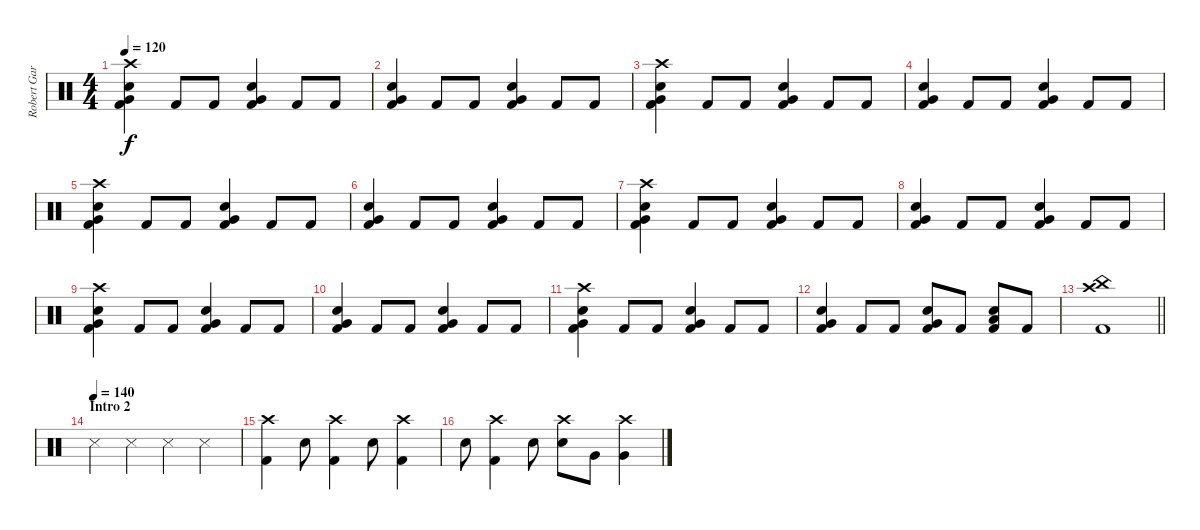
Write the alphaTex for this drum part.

\track ("Robert Garven" "Robert Gar") {instrument percussion}
\staff {score}
\articulation defaults
\ts (4 4)
\tempo 120
\clef neutral
\ks c
("Crash high (hit)" "Very Low Tom (hit)" "Electric Snare (hit)" "Kick (hit) 2").4{dy f} "Kick (hit) 2".8 "Kick (hit) 2".8 ("Very Low Tom (hit)" "Electric Snare (hit)" "Kick (hit) 2").4 "Kick (hit) 2".8 "Kick (hit) 2".8 |
("Very Low Tom (hit)" "Electric Snare (hit)" "Kick (hit) 2").4 "Kick (hit) 2".8 "Kick (hit) 2".8 ("Very Low Tom (hit)" "Electric Snare (hit)" "Kick (hit) 2").4 "Kick (hit) 2".8 "Kick (hit) 2".8 |
("Crash high (hit)" "Very Low Tom (hit)" "Electric Snare (hit)" "Kick (hit) 2").4 "Kick (hit) 2".8 "Kick (hit) 2".8 ("Very Low Tom (hit)" "Electric Snare (hit)" "Kick (hit) 2").4 "Kick (hit) 2".8 "Kick (hit) 2".8 |
("Very Low Tom (hit)" "Electric Snare (hit)" "Kick (hit) 2").4 "Kick (hit) 2".8 "Kick (hit) 2".8 ("Very Low Tom (hit)" "Electric Snare (hit)" "Kick (hit) 2").4 "Kick (hit) 2".8 "Kick (hit) 2".8 |
("Crash high (hit)" "Very Low Tom (hit)" "Electric Snare (hit)" "Kick (hit) 2").4 "Kick (hit) 2".8 "Kick (hit) 2".8 ("Very Low Tom (hit)" "Electric Snare (hit)" "Kick (hit) 2").4 "Kick (hit) 2".8 "Kick (hit) 2".8 |
("Very Low Tom (hit)" "Electric Snare (hit)" "Kick (hit) 2").4 "Kick (hit) 2".8 "Kick (hit) 2".8 ("Very Low Tom (hit)" "Electric Snare (hit)" "Kick (hit) 2").4 "Kick (hit) 2".8 "Kick (hit) 2".8 |
("Crash high (hit)" "Very Low Tom (hit)" "Electric Snare (hit)" "Kick (hit) 2").4 "Kick (hit) 2".8 "Kick (hit) 2".8 ("Very Low Tom (hit)" "Electric Snare (hit)" "Kick (hit) 2").4 "Kick (hit) 2".8 "Kick (hit) 2".8 |
("Very Low Tom (hit)" "Electric Snare (hit)" "Kick (hit) 2").4 "Kick (hit) 2".8 "Kick (hit) 2".8 ("Very Low Tom (hit)" "Electric Snare (hit)" "Kick (hit) 2").4 "Kick (hit) 2".8 "Kick (hit) 2".8 |
("Crash high (hit)" "Very Low Tom (hit)" "Electric Snare (hit)" "Kick (hit) 2").4 "Kick (hit) 2".8 "Kick (hit) 2".8 ("Very Low Tom (hit)" "Electric Snare (hit)" "Kick (hit) 2").4 "Kick (hit) 2".8 "Kick (hit) 2".8 |
("Very Low Tom (hit)" "Electric Snare (hit)" "Kick (hit) 2").4 "Kick (hit) 2".8 "Kick (hit) 2".8 ("Very Low Tom (hit)" "Electric Snare (hit)" "Kick (hit) 2").4 "Kick (hit) 2".8 "Kick (hit) 2".8 |
("Crash high (hit)" "Very Low Tom (hit)" "Electric Snare (hit)" "Kick (hit) 2").4 "Kick (hit) 2".8 "Kick (hit) 2".8 ("Very Low Tom (hit)" "Electric Snare (hit)" "Kick (hit) 2").4 "Kick (hit) 2".8 "Kick (hit) 2".8 |
("Very Low Tom (hit)" "Electric Snare (hit)" "Kick (hit) 2").4 "Kick (hit) 2".8 "Kick (hit) 2".8 ("Very Low Tom (hit)" "Electric Snare (hit)" "Kick (hit) 2").8 "Kick (hit) 2".8 ("Low Floor Tom (hit)" "Electric Snare (hit)" "Kick (hit) 2").8 "Kick (hit) 2".8 |
\barLineRight lightlight
("Crash high (hit)" "China (hit)" "Kick (hit) 2").1 |
\section ("" "Intro 2")
\tempo (140)
"Snare (side stick) 3".4 "Snare (side stick) 3".4 "Snare (side stick) 3".4 "Snare (side stick) 3".4 |
("Crash high (hit)" "Kick (hit) 2").4 "Electric Snare (hit)".8 ("Crash high (hit)" "Kick (hit) 2").4 "Electric Snare (hit)".8 ("Crash high (hit)" "Kick (hit) 2").4 |
"Electric Snare (hit)".8 ("Crash high (hit)" "Kick (hit) 2").4 "Electric Snare (hit)".8 ("Crash high (hit)" "Electric Snare (hit)").8 "Very Low Tom (hit)".8 ("Crash high (hit)" "Very Low Tom (hit)").4
